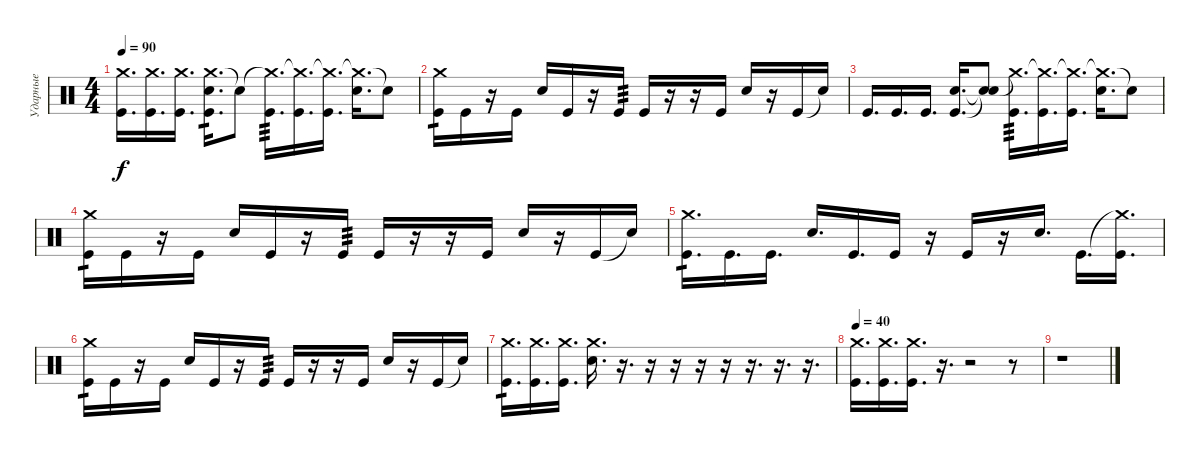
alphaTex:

\track ("Ударные" "Ударные") {instrument percussion}
\staff {score}
\articulation defaults
\ts (4 4)
\tempo 90
\clef neutral
\ks c
("Crash medium (hit)" "Kick (hit)").16{d dy f} ("Crash medium (hit)" "Kick (hit)").16{d} ("Crash medium (hit)" "Kick (hit)").16{d} ("Crash medium (hit)" "Electric Snare (hit)" "Kick (hit)").16{d tp 1} "Snare (hit)"{t}.8 ("Crash medium (hit)"{t} "Kick (hit)").16{d tp 3} ("Crash medium (hit)"{t} "Kick (hit)").16{d} ("Crash medium (hit)"{t} "Kick (hit)").16{d} ("Crash medium (hit)"{t} "Electric Snare (hit)").16{d} "Snare (hit)"{t}.8 |
("Crash medium (hit)" "Kick (hit)").16{tp 1} "Kick (hit)".16 r.16 "Kick (hit)".16 "Electric Snare (hit)".16 "Kick (hit)".16 r.16 "Kick (hit)".16{tp 3} "Kick (hit)".16 r.16 r.16 "Kick (hit)".16 "Electric Snare (hit)".16 r.16 "Kick (hit)".16 "Snare (hit)"{t}.16 |
"Kick (hit)".16{d} "Kick (hit)".16{d} "Kick (hit)".16{d} ("Electric Snare (hit)" "Kick (hit)").16{d} ("Snare (hit)"{t} "Snare (hit)"{t}).8 ("Crash medium (hit)"{t} "Kick (hit)").16{d tp 3} ("Crash medium (hit)"{t} "Kick (hit)").16{d} ("Crash medium (hit)"{t} "Kick (hit)").16{d} ("Crash medium (hit)"{t} "Electric Snare (hit)").16{d} "Snare (hit)"{t}.8 |
("Crash medium (hit)" "Kick (hit)").16{tp 1} "Kick (hit)".16 r.16 "Kick (hit)".16 "Electric Snare (hit)".16 "Kick (hit)".16 r.16 "Kick (hit)".16{tp 3} "Kick (hit)".16 r.16 r.16 "Kick (hit)".16 "Electric Snare (hit)".16 r.16 "Kick (hit)".16 "Snare (hit)"{t}.16 |
("Crash medium (hit)" "Kick (hit)").16{d tp 1} "Kick (hit)".16{d} "Kick (hit)".16{d} "Electric Snare (hit)".16{d} "Kick (hit)".16{d} "Kick (hit)".16 r.16 "Kick (hit)".16 r.16 "Electric Snare (hit)".16{d} "Kick (hit)".16{d} ("Crash medium (hit)"{t} "Kick (hit)").16{d} |
("Crash medium (hit)" "Kick (hit)").16{tp 1} "Kick (hit)".16 r.16 "Kick (hit)".16 "Electric Snare (hit)".16 "Kick (hit)".16 r.16 "Kick (hit)".16{tp 3} "Kick (hit)".16 r.16 r.16 "Kick (hit)".16 "Electric Snare (hit)".16 r.16 "Kick (hit)".16 "Snare (hit)"{t}.16 |
("Crash medium (hit)" "Kick (hit)").16{d tp 1} ("Crash medium (hit)" "Kick (hit)").16{d} ("Crash medium (hit)" "Kick (hit)").16{d} ("Crash medium (hit)" "Electric Snare (hit)").16{d} r.16{d} r.16 r.16 r.16 r.16 r.16{d} r.16{d} r.16{d} |
\tempo 40
("Crash medium (hit)" "Kick (hit)").16{d} ("Crash medium (hit)" "Kick (hit)").16{d} ("Crash medium (hit)" "Kick (hit)").16{d} r.16{d} r.2 r.8 |
r.1
